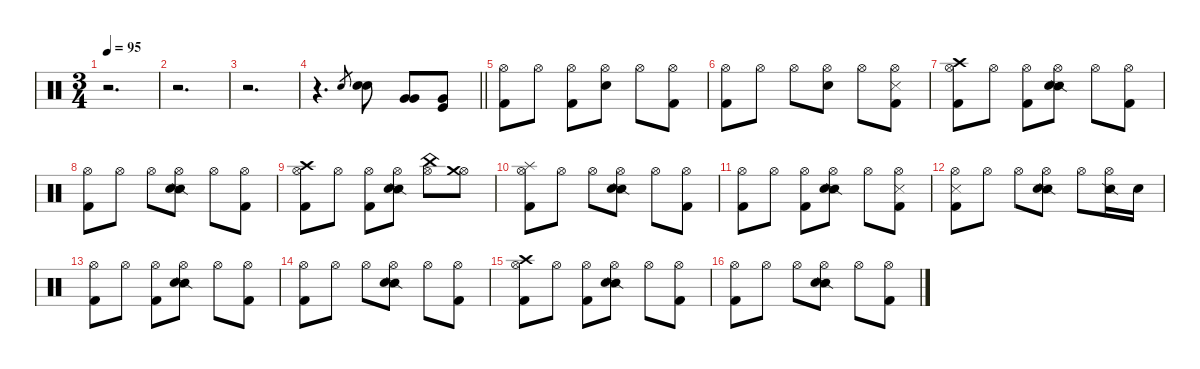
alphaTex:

\defaultSystemsLayout 4
\hideDynamics
\bracketExtendMode nobrackets
\singleTrackTrackNamePolicy hidden
\multiTrackTrackNamePolicy hidden
\firstSystemTrackNameMode fullname
\firstSystemTrackNameOrientation horizontal
\otherSystemsTrackNameOrientation horizontal
\track ("Drums" "drm.") {defaultSystemsLayout 4 instrument percussion}
\staff {score}
\articulation defaults
\ts (3 4)
\beaming (8 2 2 2)
\tempo 95
\clef neutral
\ks c
r.2{d dy f beam Down} |
r.2{d beam Down} |
r.2{d beam Down} |
\barLineRight lightlight
r.4{d beam Down} "Electric Snare (hit)".8{gr beam Up} ("Snare (hit) 2" "Snare (hit) 2").8{dy fff beam Down} ("Very Low Tom (hit)" "Very Low Tom (hit)").8{dy ff beam Up} ("Very Low Tom (hit)" "Kick (hit)").8{dy fff beam Up} |
("Hi-Hat (open)" "Kick (hit) 2").8{dy ff beam Down} "Hi-Hat (open)".8{beam Down} ("Hi-Hat (open)" "Kick (hit) 2").8{beam Down} ("Hi-Hat (open)" "Snare (hit) 2").8{beam Down} "Hi-Hat (open)".8{beam Down} ("Hi-Hat (open)" "Kick (hit) 2").8{beam Down} |
("Hi-Hat (open)" "Kick (hit) 2").8{beam Down} "Hi-Hat (open)".8{beam Down} "Hi-Hat (open)".8{beam Down} ("Hi-Hat (open)" "Snare (hit) 2").8{beam Down} "Hi-Hat (open)".8{beam Down} ("Hi-Hat (open)" "Metronome (hit)" "Kick (hit) 2").8{beam Down} |
("Hi-Hat (open)" "Crash high (hit)" "Kick (hit) 2").8{beam Down} "Hi-Hat (open)".8{beam Down} ("Hi-Hat (open)" "Kick (hit) 2").8{beam Down} ("Hi-Hat (open)" "Snare (side stick) 2" "Snare (hit) 2").8{beam Down} "Hi-Hat (open)".8{beam Down} ("Hi-Hat (open)" "Kick (hit) 2").8{beam Down} |
("Hi-Hat (open)" "Kick (hit) 2").8{beam Down} "Hi-Hat (open)".8{beam Down} "Hi-Hat (open)".8{beam Down} ("Hi-Hat (open)" "Snare (side stick) 2" "Snare (hit) 2").8{beam Down} "Hi-Hat (open)".8{beam Down} ("Hi-Hat (open)" "Kick (hit) 2").8{beam Down} |
("Hi-Hat (open)" "Crash high (hit)" "Kick (hit) 2").8{beam Down} "Hi-Hat (open)".8{beam Down} ("Hi-Hat (open)" "Kick (hit) 2").8{beam Down} ("Hi-Hat (open)" "Snare (side stick) 2" "Snare (hit) 2").8{beam Down} ("Hi-Hat (open)" "China (hit)").8{dy fff beam Down} ("Hi-Hat (open)" "Crash medium (hit)").8{dy ff beam Down} |
("Hi-Hat (open)" "Splash (hit)" "Kick (hit) 2").8{beam Down} "Hi-Hat (open)".8{beam Down} "Hi-Hat (open)".8{beam Down} ("Hi-Hat (open)" "Snare (side stick) 2" "Snare (hit) 2").8{beam Down} "Hi-Hat (open)".8{beam Down} ("Hi-Hat (open)" "Kick (hit) 2").8{beam Down} |
("Hi-Hat (open)" "Kick (hit) 2").8{beam Down} "Hi-Hat (open)".8{beam Down} ("Hi-Hat (open)" "Kick (hit) 2").8{beam Down} ("Hi-Hat (open)" "Snare (side stick) 2" "Snare (hit) 2").8{beam Down} "Hi-Hat (open)".8{beam Down} ("Hi-Hat (open)" "Metronome (hit)" "Kick (hit) 2").8{beam Down} |
("Hi-Hat (open)" "Metronome (hit)" "Kick (hit) 2").8{beam Down} "Hi-Hat (open)".8{beam Down} "Hi-Hat (open)".8{beam Down} ("Hi-Hat (open)" "Snare (side stick) 2" "Snare (hit) 2").8{beam Down} "Hi-Hat (open)".8{beam Down} ("Hi-Hat (open)" "Snare (side stick) 2").16{beam Down} "Snare (hit) 2".16{dy fff beam Down} |
("Hi-Hat (open)" "Kick (hit) 2").8{dy ff beam Down} "Hi-Hat (open)".8{beam Down} ("Hi-Hat (open)" "Kick (hit) 2").8{beam Down} ("Hi-Hat (open)" "Snare (side stick) 2" "Snare (hit) 2").8{beam Down} "Hi-Hat (open)".8{beam Down} ("Hi-Hat (open)" "Kick (hit) 2").8{beam Down} |
("Hi-Hat (open)" "Kick (hit) 2").8{beam Down} "Hi-Hat (open)".8{beam Down} "Hi-Hat (open)".8{beam Down} ("Hi-Hat (open)" "Snare (side stick) 2" "Snare (hit) 2").8{dy f beam Down} "Hi-Hat (open)".8{dy ff beam Down} ("Hi-Hat (open)" "Kick (hit) 2").8{beam Down} |
("Hi-Hat (open)" "Crash high (hit)" "Kick (hit) 2").8{beam Down} "Hi-Hat (open)".8{beam Down} ("Hi-Hat (open)" "Kick (hit) 2").8{beam Down} ("Hi-Hat (open)" "Snare (side stick) 2" "Snare (hit) 2").8{beam Down} "Hi-Hat (open)".8{beam Down} ("Hi-Hat (open)" "Kick (hit) 2").8{beam Down} |
("Hi-Hat (open)" "Kick (hit) 2").8{beam Down} "Hi-Hat (open)".8{beam Down} "Hi-Hat (open)".8{beam Down} ("Hi-Hat (open)" "Snare (side stick) 2" "Snare (hit) 2").8{beam Down} "Hi-Hat (open)".8{beam Down} ("Hi-Hat (open)" "Kick (hit) 2").8{beam Down}
